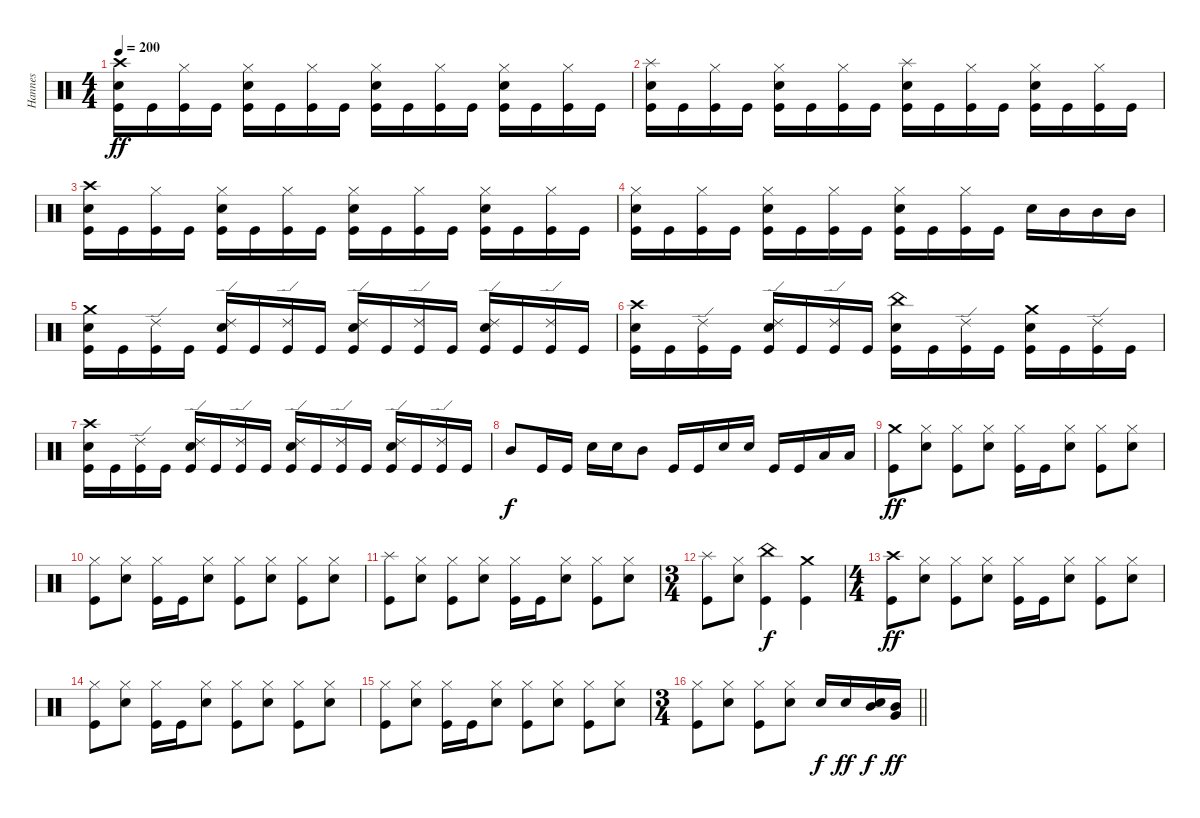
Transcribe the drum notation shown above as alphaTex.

\track ("Hannes" "Hannes") {instrument percussion}
\staff {score}
\articulation defaults
\ts (4 4)
\tempo 200
\clef neutral
\ks c
("Crash high (hit)" "Electric Snare (hit)" "Kick (hit)").16{dy ff} "Kick (hit)".16 ("Hi-Hat (closed)" "Kick (hit)").16 "Kick (hit)".16 ("Hi-Hat (closed)" "Electric Snare (hit)" "Kick (hit)").16 "Kick (hit)".16 ("Hi-Hat (closed)" "Kick (hit)").16 "Kick (hit)".16 ("Hi-Hat (closed)" "Electric Snare (hit)" "Kick (hit)").16 "Kick (hit)".16 ("Hi-Hat (closed)" "Kick (hit)").16 "Kick (hit)".16 ("Hi-Hat (closed)" "Electric Snare (hit)" "Kick (hit)").16 "Kick (hit)".16 ("Hi-Hat (closed)" "Kick (hit)").16 "Kick (hit)".16 |
("Splash (hit)" "Electric Snare (hit)" "Kick (hit)").16 "Kick (hit)".16 ("Hi-Hat (closed)" "Kick (hit)").16 "Kick (hit)".16 ("Hi-Hat (closed)" "Electric Snare (hit)" "Kick (hit)").16 "Kick (hit)".16 ("Hi-Hat (closed)" "Kick (hit)").16 "Kick (hit)".16 ("Splash (hit)" "Electric Snare (hit)" "Kick (hit)").16 "Kick (hit)".16 ("Hi-Hat (closed)" "Kick (hit)").16 "Kick (hit)".16 ("Hi-Hat (closed)" "Electric Snare (hit)" "Kick (hit)").16 "Kick (hit)".16 ("Hi-Hat (closed)" "Kick (hit)").16 "Kick (hit)".16 |
("Crash high (hit)" "Electric Snare (hit)" "Kick (hit)").16 "Kick (hit)".16 ("Hi-Hat (closed)" "Kick (hit)").16 "Kick (hit)".16 ("Hi-Hat (closed)" "Electric Snare (hit)" "Kick (hit)").16 "Kick (hit)".16 ("Hi-Hat (closed)" "Kick (hit)").16 "Kick (hit)".16 ("Hi-Hat (closed)" "Electric Snare (hit)" "Kick (hit)").16 "Kick (hit)".16 ("Hi-Hat (closed)" "Kick (hit)").16 "Kick (hit)".16 ("Hi-Hat (closed)" "Electric Snare (hit)" "Kick (hit)").16 "Kick (hit)".16 ("Hi-Hat (closed)" "Kick (hit)").16 "Kick (hit)".16 |
("Hi-Hat (closed)" "Electric Snare (hit)" "Kick (hit)").16 "Kick (hit)".16 ("Hi-Hat (closed)" "Kick (hit)").16 "Kick (hit)".16 ("Hi-Hat (closed)" "Electric Snare (hit)" "Kick (hit)").16 "Kick (hit)".16 ("Hi-Hat (closed)" "Kick (hit)").16 "Kick (hit)".16 ("Hi-Hat (closed)" "Electric Snare (hit)" "Kick (hit)").16 "Kick (hit)".16 ("Hi-Hat (closed)" "Kick (hit)").16 "Kick (hit)".16 "Electric Snare (hit)".16 "Mid Tom (hit)".16 "Mid Tom (hit)".16 "Mid Tom (hit)".16 |
("Crash medium (hit)" "Electric Snare (hit)" "Kick (hit)").16 "Kick (hit)".16 ("Ride (edge) 2" "Kick (hit)").16 "Kick (hit)".16 ("Ride (edge) 2" "Electric Snare (hit)" "Kick (hit)").16 "Kick (hit)".16 ("Ride (edge) 2" "Kick (hit)").16 "Kick (hit)".16 ("Ride (edge) 2" "Electric Snare (hit)" "Kick (hit)").16 "Kick (hit)".16 ("Ride (edge) 2" "Kick (hit)").16 "Kick (hit)".16 ("Ride (edge) 2" "Electric Snare (hit)" "Kick (hit)").16 "Kick (hit)".16 ("Ride (edge) 2" "Kick (hit)").16 "Kick (hit)".16 |
("Crash high (hit)" "Electric Snare (hit)" "Kick (hit)").16 "Kick (hit)".16 ("Ride (edge) 2" "Kick (hit)").16 "Kick (hit)".16 ("Ride (edge) 2" "Electric Snare (hit)" "Kick (hit)").16 "Kick (hit)".16 ("Ride (edge) 2" "Kick (hit)").16 "Kick (hit)".16 ("China (hit)" "Electric Snare (hit)" "Kick (hit)").16 "Kick (hit)".16 ("Ride (edge) 2" "Kick (hit)").16 "Kick (hit)".16 ("Crash medium (hit)" "Electric Snare (hit)" "Kick (hit)").16 "Kick (hit)".16 ("Ride (edge) 2" "Kick (hit)").16 "Kick (hit)".16 |
("Crash high (hit)" "Electric Snare (hit)" "Kick (hit)").16 "Kick (hit)".16 ("Ride (edge) 2" "Kick (hit)").16 "Kick (hit)".16 ("Ride (edge) 2" "Electric Snare (hit)" "Kick (hit)").16 "Kick (hit)".16 ("Ride (edge) 2" "Kick (hit)").16 "Kick (hit)".16 ("Ride (edge) 2" "Electric Snare (hit)" "Kick (hit)").16 "Kick (hit)".16 ("Ride (edge) 2" "Kick (hit)").16 "Kick (hit)".16 ("Ride (edge) 2" "Electric Snare (hit)" "Kick (hit)").16 "Kick (hit)".16 ("Ride (edge) 2" "Kick (hit)").16 "Kick (hit)".16 |
"Mid Tom (hit)".8{dy f} "Kick (hit)".16 "Kick (hit)".16 "Electric Snare (hit)".16 "Electric Snare (hit)".16 "Mid Tom (hit)".8 "Kick (hit)".16 "Kick (hit)".16 "Electric Snare (hit)".16 "Electric Snare (hit)".16 "Kick (hit)".16 "Kick (hit)".16 "Low Tom (hit)".16 "Low Tom (hit)".16 |
("Crash medium (hit)" "Kick (hit)").8{dy ff} ("Hi-Hat (closed)" "Electric Snare (hit)").8 ("Hi-Hat (closed)" "Kick (hit)").8 ("Hi-Hat (closed)" "Electric Snare (hit)").8 ("Hi-Hat (closed)" "Kick (hit)").16 "Kick (hit)".16 ("Hi-Hat (closed)" "Electric Snare (hit)").8 ("Hi-Hat (closed)" "Kick (hit)").8 ("Hi-Hat (closed)" "Electric Snare (hit)").8 |
("Hi-Hat (closed)" "Kick (hit)").8 ("Hi-Hat (closed)" "Electric Snare (hit)").8 ("Hi-Hat (closed)" "Kick (hit)").16 "Kick (hit)".16 ("Hi-Hat (closed)" "Electric Snare (hit)").8 ("Hi-Hat (closed)" "Kick (hit)").8 ("Hi-Hat (closed)" "Electric Snare (hit)").8 ("Hi-Hat (closed)" "Kick (hit)").8 ("Hi-Hat (closed)" "Electric Snare (hit)").8 |
("Splash (hit)" "Kick (hit)").8 ("Hi-Hat (closed)" "Electric Snare (hit)").8 ("Hi-Hat (closed)" "Kick (hit)").8 ("Hi-Hat (closed)" "Electric Snare (hit)").8 ("Hi-Hat (closed)" "Kick (hit)").16 "Kick (hit)".16 ("Hi-Hat (closed)" "Electric Snare (hit)").8 ("Hi-Hat (closed)" "Kick (hit)").8 ("Hi-Hat (closed)" "Electric Snare (hit)").8 |
\ts (3 4)
("Splash (hit)" "Kick (hit)").8 ("Hi-Hat (closed)" "Electric Snare (hit)").8 ("China (hit)" "Kick (hit)").4{dy f} ("Crash medium (hit)" "Kick (hit)").4 |
\ts (4 4)
("Crash high (hit)" "Kick (hit)").8{dy ff} ("Hi-Hat (closed)" "Electric Snare (hit)").8 ("Hi-Hat (closed)" "Kick (hit)").8 ("Hi-Hat (closed)" "Electric Snare (hit)").8 ("Hi-Hat (closed)" "Kick (hit)").16 "Kick (hit)".16 ("Hi-Hat (closed)" "Electric Snare (hit)").8 ("Hi-Hat (closed)" "Kick (hit)").8 ("Hi-Hat (closed)" "Electric Snare (hit)").8 |
("Hi-Hat (closed)" "Kick (hit)").8 ("Hi-Hat (closed)" "Electric Snare (hit)").8 ("Hi-Hat (closed)" "Kick (hit)").16 "Kick (hit)".16 ("Hi-Hat (closed)" "Electric Snare (hit)").8 ("Hi-Hat (closed)" "Kick (hit)").8 ("Hi-Hat (closed)" "Electric Snare (hit)").8 ("Hi-Hat (closed)" "Kick (hit)").8 ("Hi-Hat (closed)" "Electric Snare (hit)").8 |
("Hi-Hat (closed)" "Kick (hit)").8 ("Hi-Hat (closed)" "Electric Snare (hit)").8 ("Hi-Hat (closed)" "Kick (hit)").16 "Kick (hit)".16 ("Hi-Hat (closed)" "Electric Snare (hit)").8 ("Hi-Hat (closed)" "Kick (hit)").8 ("Hi-Hat (closed)" "Electric Snare (hit)").8 ("Hi-Hat (closed)" "Kick (hit)").8 ("Hi-Hat (closed)" "Electric Snare (hit)").8 |
\ts (3 4)
\barLineRight lightlight
("Hi-Hat (closed)" "Kick (hit)").8 ("Hi-Hat (closed)" "Electric Snare (hit)").8 ("Hi-Hat (closed)" "Kick (hit)").8 ("Hi-Hat (closed)" "Electric Snare (hit)").8 "Electric Snare (hit)".16{dy f} "Electric Snare (hit)".16{dy ff} ("Mid Tom (hit)" "Electric Snare (hit)").16{dy f} ("Very Low Tom (hit)" "Mid Tom (hit)").16{dy ff}
